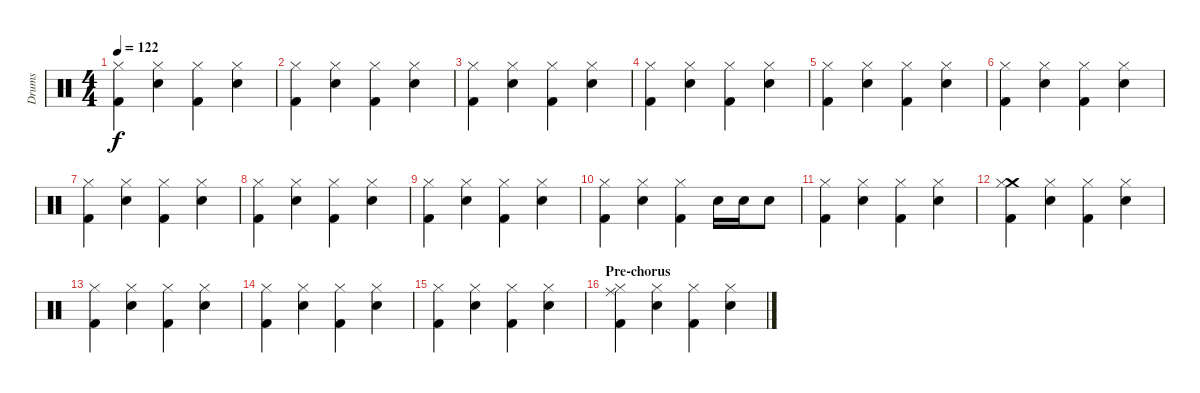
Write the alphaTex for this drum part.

\track ("Drums" "Drums") {instrument percussion}
\staff {score}
\articulation defaults
\ts (4 4)
\tempo 122
\clef neutral
\ks aminor
("Hi-Hat (closed)" "Kick (hit) 2").4{dy f} ("Hi-Hat (closed)" "Snare (hit) 2").4 ("Hi-Hat (closed)" "Kick (hit) 2").4 ("Hi-Hat (closed)" "Snare (hit) 2").4 |
("Hi-Hat (closed)" "Kick (hit) 2").4 ("Hi-Hat (closed)" "Snare (hit) 2").4 ("Hi-Hat (closed)" "Kick (hit) 2").4 ("Hi-Hat (closed)" "Snare (hit) 2").4 |
("Hi-Hat (closed)" "Kick (hit) 2").4 ("Hi-Hat (closed)" "Snare (hit) 2").4 ("Hi-Hat (closed)" "Kick (hit) 2").4 ("Hi-Hat (closed)" "Snare (hit) 2").4 |
("Hi-Hat (closed)" "Kick (hit) 2").4 ("Hi-Hat (closed)" "Snare (hit) 2").4 ("Hi-Hat (closed)" "Kick (hit) 2").4 ("Hi-Hat (closed)" "Snare (hit) 2").4 |
("Hi-Hat (closed)" "Kick (hit) 2").4 ("Hi-Hat (closed)" "Snare (hit) 2").4 ("Hi-Hat (closed)" "Kick (hit) 2").4 ("Hi-Hat (closed)" "Snare (hit) 2").4 |
("Hi-Hat (closed)" "Kick (hit) 2").4 ("Hi-Hat (closed)" "Snare (hit) 2").4 ("Hi-Hat (closed)" "Kick (hit) 2").4 ("Hi-Hat (closed)" "Snare (hit) 2").4 |
("Hi-Hat (closed)" "Kick (hit) 2").4 ("Hi-Hat (closed)" "Snare (hit) 2").4 ("Hi-Hat (closed)" "Kick (hit) 2").4 ("Hi-Hat (closed)" "Snare (hit) 2").4 |
("Hi-Hat (closed)" "Kick (hit) 2").4 ("Hi-Hat (closed)" "Snare (hit) 2").4 ("Hi-Hat (closed)" "Kick (hit) 2").4 ("Hi-Hat (closed)" "Snare (hit) 2").4 |
("Hi-Hat (closed)" "Kick (hit) 2").4 ("Hi-Hat (closed)" "Snare (hit) 2").4 ("Hi-Hat (closed)" "Kick (hit) 2").4 ("Hi-Hat (closed)" "Snare (hit) 2").4 |
("Hi-Hat (closed)" "Kick (hit) 2").4 ("Hi-Hat (closed)" "Snare (hit) 2").4 ("Hi-Hat (closed)" "Kick (hit) 2").4 "Snare (hit) 2".16 "Snare (hit) 2".16 "Snare (hit) 2".8 |
("Hi-Hat (closed)" "Kick (hit) 2").4 ("Hi-Hat (closed)" "Snare (hit) 2").4 ("Hi-Hat (closed)" "Kick (hit) 2").4 ("Hi-Hat (closed)" "Snare (hit) 2").4 |
("Crash medium (hit)" "Hi-Hat (closed)" "Kick (hit) 2").4 ("Hi-Hat (closed)" "Snare (hit) 2").4 ("Hi-Hat (closed)" "Kick (hit) 2").4 ("Hi-Hat (closed)" "Snare (hit) 2").4 |
("Hi-Hat (closed)" "Kick (hit) 2").4 ("Hi-Hat (closed)" "Snare (hit) 2").4 ("Hi-Hat (closed)" "Kick (hit) 2").4 ("Hi-Hat (closed)" "Snare (hit) 2").4 |
("Hi-Hat (closed)" "Kick (hit) 2").4 ("Hi-Hat (closed)" "Snare (hit) 2").4 ("Hi-Hat (closed)" "Kick (hit) 2").4 ("Hi-Hat (closed)" "Snare (hit) 2").4 |
("Hi-Hat (closed)" "Kick (hit) 2").4 ("Hi-Hat (closed)" "Snare (hit) 2").4 ("Hi-Hat (closed)" "Kick (hit) 2").4 ("Hi-Hat (closed)" "Snare (hit) 2").4 |
\section ("" "Pre-chorus")
("Ride (middle)" "Hi-Hat (closed)" "Kick (hit) 2").4 ("Hi-Hat (closed)" "Snare (hit) 2").4 ("Hi-Hat (closed)" "Kick (hit) 2").4 ("Hi-Hat (closed)" "Snare (hit) 2").4
